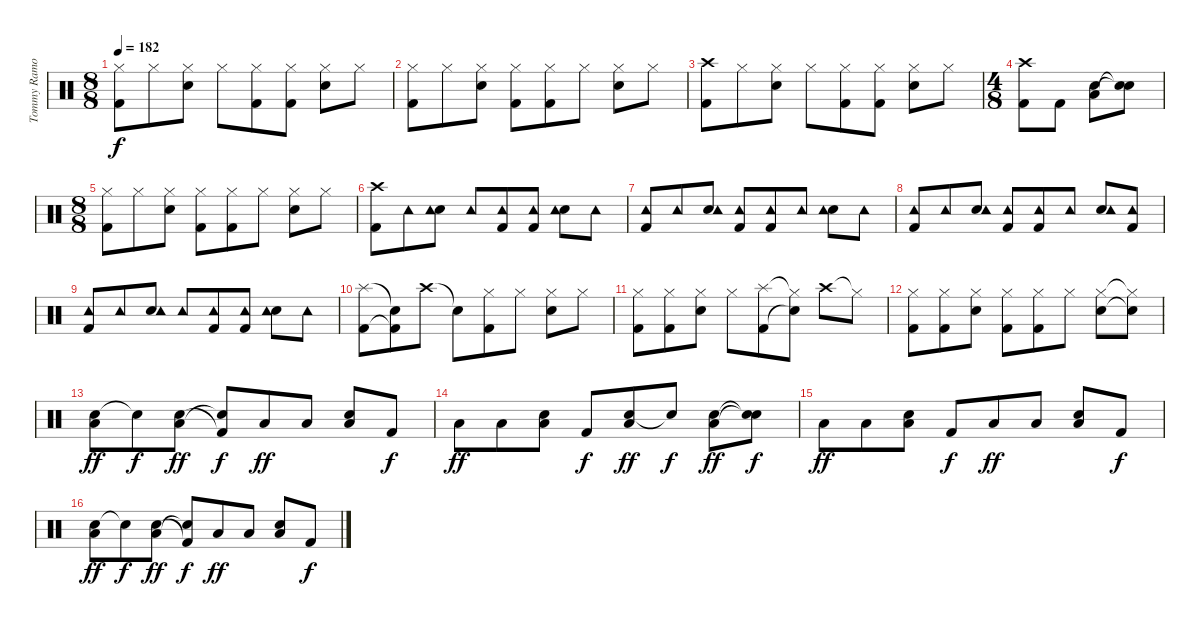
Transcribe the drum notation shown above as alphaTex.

\track ("Tommy Ramone - Drums" "Tommy Ramo") {instrument percussion}
\staff {score}
\articulation defaults
\ts (8 8)
\tempo 182
\clef neutral
\ks c
("Kick (hit) 2" "Hi-Hat (closed)").8{dy f} "Hi-Hat (closed)".8 ("Snare (hit) 2" "Hi-Hat (closed)").8 "Hi-Hat (closed)".8 ("Kick (hit) 2" "Hi-Hat (closed)").8 ("Kick (hit) 2" "Hi-Hat (closed)").8 ("Snare (hit) 2" "Hi-Hat (closed)").8 "Hi-Hat (closed)".8 |
("Kick (hit) 2" "Hi-Hat (closed)").8 "Hi-Hat (closed)".8 ("Snare (hit) 2" "Hi-Hat (closed)").8 ("Kick (hit) 2" "Hi-Hat (closed)").8 ("Kick (hit) 2" "Hi-Hat (closed)").8 "Hi-Hat (closed)".8 ("Snare (hit) 2" "Hi-Hat (closed)").8 "Hi-Hat (closed)".8 |
("Kick (hit) 2" "Crash high (hit)").8 "Hi-Hat (closed)".8 ("Snare (hit) 2" "Hi-Hat (closed)").8 "Hi-Hat (closed)".8 ("Kick (hit) 2" "Hi-Hat (closed)").8 ("Kick (hit) 2" "Hi-Hat (closed)").8 ("Snare (hit) 2" "Hi-Hat (closed)").8 "Hi-Hat (closed)".8 |
\ts (4 8)
("Kick (hit) 2" "Crash high (hit)").8 "Kick (hit) 2".8 ("Snare (hit) 2" "Low Floor Tom (hit)").8 ("Snare (hit)"{t} "Electric Snare (hit)"{t}).8 |
\ts (8 8)
("Kick (hit) 2" "Hi-Hat (closed)").8 "Hi-Hat (closed)".8 ("Snare (hit) 2" "Hi-Hat (closed)").8 ("Kick (hit) 2" "Hi-Hat (closed)").8 ("Kick (hit) 2" "Hi-Hat (closed)").8 "Hi-Hat (closed)".8 ("Snare (hit) 2" "Hi-Hat (closed)").8 "Hi-Hat (closed)".8 |
("Kick (hit) 2" "Crash high (hit)").8 "Tambourine (hit)".8 ("Snare (hit) 2" "Tambourine (hit)").8 "Tambourine (hit)".8 ("Kick (hit) 2" "Tambourine (hit)").8 ("Kick (hit) 2" "Tambourine (hit)").8 ("Snare (hit) 2" "Tambourine (hit)").8 "Tambourine (hit)".8 |
("Kick (hit) 2" "Tambourine (hit)").8 "Tambourine (hit)".8 ("Snare (hit) 2" "Tambourine (hit)").8 ("Kick (hit) 2" "Tambourine (hit)").8 ("Kick (hit) 2" "Tambourine (hit)").8 "Tambourine (hit)".8 ("Snare (hit) 2" "Tambourine (hit)").8 "Tambourine (hit)".8 |
("Kick (hit) 2" "Tambourine (hit)").8 "Tambourine (hit)".8 ("Snare (hit) 2" "Tambourine (hit)").8 ("Kick (hit) 2" "Tambourine (hit)").8 ("Kick (hit) 2" "Tambourine (hit)").8 "Tambourine (hit)".8 ("Snare (hit) 2" "Tambourine (hit)").8 ("Kick (hit) 2" "Tambourine (hit)").8 |
("Kick (hit) 2" "Tambourine (hit)").8 "Tambourine (hit)".8 ("Snare (hit) 2" "Tambourine (hit)").8 "Tambourine (hit)".8 ("Kick (hit) 2" "Tambourine (hit)").8 ("Kick (hit) 2" "Tambourine (hit)").8 ("Snare (hit) 2" "Tambourine (hit)").8 "Tambourine (hit)".8 |
("Kick (hit) 2" "Splash (hit)").8 ("Kick (hit) 2"{t} "Electric Snare (hit)"{t}).8 "Crash high (hit)".8 "Electric Snare (hit)"{t}.8 ("Kick (hit) 2" "Hi-Hat (closed)").8 "Hi-Hat (closed)".8 ("Snare (hit) 2" "Hi-Hat (closed)").8 "Hi-Hat (closed)".8 |
("Kick (hit) 2" "Hi-Hat (closed)").8 ("Kick (hit) 2" "Hi-Hat (closed)").8 ("Snare (hit) 2" "Hi-Hat (closed)").8 "Hi-Hat (closed)".8 ("Kick (hit) 2" "Splash (hit)").8 ("Snare (hit)"{t} "Hi-Hat (closed)"{t}).8 "Crash high (hit)".8 "Hi-Hat (closed)"{t}.8 |
("Kick (hit) 2" "Hi-Hat (closed)").8 ("Kick (hit) 2" "Hi-Hat (closed)").8 ("Snare (hit) 2" "Hi-Hat (closed)").8 ("Kick (hit) 2" "Hi-Hat (closed)").8 ("Kick (hit) 2" "Hi-Hat (closed)").8 "Hi-Hat (closed)".8 ("Snare (hit) 2" "Hi-Hat (closed)").8 ("Snare (hit)"{t} "Hi-Hat (closed)"{t}).8 |
("Snare (hit) 2" "Low Floor Tom (hit)").8{dy ff} "Electric Snare (hit)"{t}.8{dy f} ("Snare (hit) 2" "Low Floor Tom (hit)").8{dy ff} ("Kick (hit) 2"{t} "Electric Snare (hit)"{t}).8{dy f} "Low Floor Tom (hit)".8{dy ff} "Low Floor Tom (hit)".8 ("Snare (hit) 2" "Low Floor Tom (hit)").8 "Kick (hit) 2".8{dy f} |
"Low Floor Tom (hit)".8{dy ff} "Low Floor Tom (hit)".8 ("Snare (hit) 2" "Low Floor Tom (hit)").8 "Kick (hit) 2".8{dy f} ("Snare (hit) 2" "Low Floor Tom (hit)").8{dy ff} "Electric Snare (hit)"{t}.8{dy f} ("Snare (hit) 2" "Low Floor Tom (hit)").8{dy ff} ("Snare (hit)"{t} "Electric Snare (hit)"{t}).8{dy f} |
"Low Floor Tom (hit)".8{dy ff} "Low Floor Tom (hit)".8 ("Snare (hit) 2" "Low Floor Tom (hit)").8 "Kick (hit) 2".8{dy f} "Low Floor Tom (hit)".8{dy ff} "Low Floor Tom (hit)".8 ("Snare (hit) 2" "Low Floor Tom (hit)").8 "Kick (hit) 2".8{dy f} |
("Snare (hit) 2" "Low Floor Tom (hit)").8{dy ff} "Electric Snare (hit)"{t}.8{dy f} ("Snare (hit) 2" "Low Floor Tom (hit)").8{dy ff} ("Kick (hit) 2"{t} "Electric Snare (hit)"{t}).8{dy f} "Low Floor Tom (hit)".8{dy ff} "Low Floor Tom (hit)".8 ("Snare (hit) 2" "Low Floor Tom (hit)").8 "Kick (hit) 2".8{dy f}
